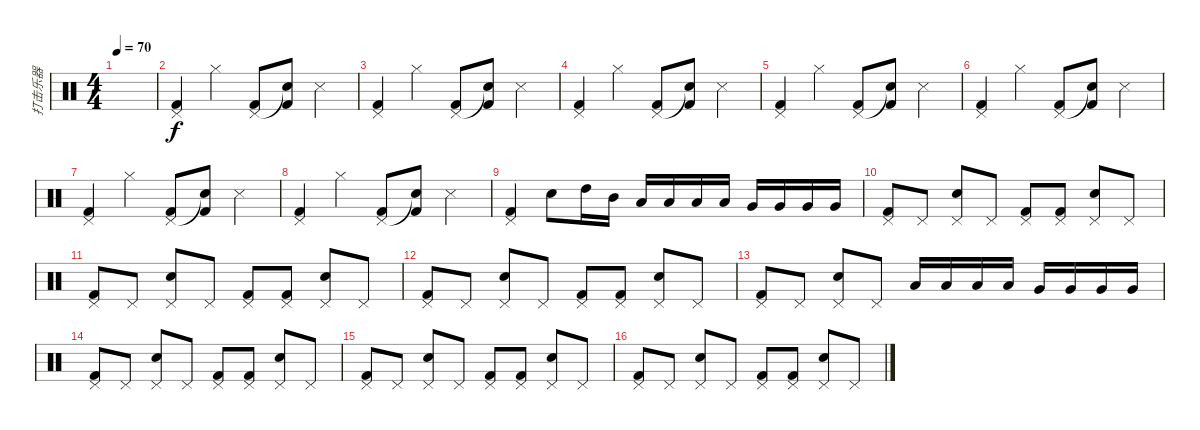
\track ("打击乐器" "打击乐器") {instrument percussion}
\staff {score}
\articulation defaults
\ts (4 4)
\tempo 70
\clef neutral
\ks c
|
("Pedal Hi-Hat (hit)" "Kick (hit) 2").4 "Hi-Hat (closed)".4 ("Pedal Hi-Hat (hit)" "Kick (hit) 2").8 ("Snare (hit)"{t} "Kick (hit) 2").8 "Snare (side stick) 3".4 |
("Pedal Hi-Hat (hit)" "Kick (hit) 2").4 "Hi-Hat (closed)".4 ("Pedal Hi-Hat (hit)" "Kick (hit) 2").8 ("Snare (hit)"{t} "Kick (hit) 2").8 "Snare (side stick) 3".4 |
("Pedal Hi-Hat (hit)" "Kick (hit) 2").4 "Hi-Hat (closed)".4 ("Pedal Hi-Hat (hit)" "Kick (hit) 2").8 ("Snare (hit)"{t} "Kick (hit) 2").8 "Snare (side stick) 3".4 |
("Pedal Hi-Hat (hit)" "Kick (hit) 2").4 "Hi-Hat (closed)".4 ("Pedal Hi-Hat (hit)" "Kick (hit) 2").8 ("Snare (hit)"{t} "Kick (hit) 2").8 "Snare (side stick) 3".4 |
("Pedal Hi-Hat (hit)" "Kick (hit) 2").4 "Hi-Hat (closed)".4 ("Pedal Hi-Hat (hit)" "Kick (hit) 2").8 ("Snare (hit)"{t} "Kick (hit) 2").8 "Snare (side stick) 3".4 |
("Pedal Hi-Hat (hit)" "Kick (hit) 2").4 "Hi-Hat (closed)".4 ("Pedal Hi-Hat (hit)" "Kick (hit) 2").8 ("Snare (hit)"{t} "Kick (hit) 2").8 "Snare (side stick) 3".4 |
("Pedal Hi-Hat (hit)" "Kick (hit) 2").4 "Hi-Hat (closed)".4 ("Pedal Hi-Hat (hit)" "Kick (hit) 2").8 ("Snare (hit)"{t} "Kick (hit) 2").8 "Snare (side stick) 3".4 |
("Pedal Hi-Hat (hit)" "Kick (hit) 2").4 "Electric Snare (hit)".8 "High Tom (hit)".16 "Mid Tom (hit)".16 "Low Tom (hit)".16 "Low Tom (hit)".16 "Low Tom (hit)".16 "Low Tom (hit)".16 "Very Low Tom (hit)".16 "Very Low Tom (hit)".16 "Very Low Tom (hit)".16 "Very Low Tom (hit)".16 |
("Pedal Hi-Hat (hit)" "Kick (hit) 2").8 "Pedal Hi-Hat (hit)".8 ("Pedal Hi-Hat (hit)" "Electric Snare (hit)").8 "Pedal Hi-Hat (hit)".8 ("Pedal Hi-Hat (hit)" "Kick (hit) 2").8 ("Pedal Hi-Hat (hit)" "Kick (hit) 2").8 ("Pedal Hi-Hat (hit)" "Electric Snare (hit)").8 "Pedal Hi-Hat (hit)".8 |
("Pedal Hi-Hat (hit)" "Kick (hit) 2").8 "Pedal Hi-Hat (hit)".8 ("Pedal Hi-Hat (hit)" "Electric Snare (hit)").8 "Pedal Hi-Hat (hit)".8 ("Pedal Hi-Hat (hit)" "Kick (hit) 2").8 ("Pedal Hi-Hat (hit)" "Kick (hit) 2").8 ("Pedal Hi-Hat (hit)" "Electric Snare (hit)").8 "Pedal Hi-Hat (hit)".8 |
("Pedal Hi-Hat (hit)" "Kick (hit) 2").8 "Pedal Hi-Hat (hit)".8 ("Pedal Hi-Hat (hit)" "Electric Snare (hit)").8 "Pedal Hi-Hat (hit)".8 ("Pedal Hi-Hat (hit)" "Kick (hit) 2").8 ("Pedal Hi-Hat (hit)" "Kick (hit) 2").8 ("Pedal Hi-Hat (hit)" "Electric Snare (hit)").8 "Pedal Hi-Hat (hit)".8 |
("Pedal Hi-Hat (hit)" "Kick (hit) 2").8 "Pedal Hi-Hat (hit)".8 ("Pedal Hi-Hat (hit)" "Electric Snare (hit)").8 "Pedal Hi-Hat (hit)".8 "Low Tom (hit)".16 "Low Tom (hit)".16 "Low Tom (hit)".16 "Low Tom (hit)".16 "Very Low Tom (hit)".16 "Very Low Tom (hit)".16 "Very Low Tom (hit)".16 "Very Low Tom (hit)".16 |
("Pedal Hi-Hat (hit)" "Kick (hit) 2").8 "Pedal Hi-Hat (hit)".8 ("Pedal Hi-Hat (hit)" "Electric Snare (hit)").8 "Pedal Hi-Hat (hit)".8 ("Pedal Hi-Hat (hit)" "Kick (hit) 2").8 ("Pedal Hi-Hat (hit)" "Kick (hit) 2").8 ("Pedal Hi-Hat (hit)" "Electric Snare (hit)").8 "Pedal Hi-Hat (hit)".8 |
("Pedal Hi-Hat (hit)" "Kick (hit) 2").8 "Pedal Hi-Hat (hit)".8 ("Pedal Hi-Hat (hit)" "Electric Snare (hit)").8 "Pedal Hi-Hat (hit)".8 ("Pedal Hi-Hat (hit)" "Kick (hit) 2").8 ("Pedal Hi-Hat (hit)" "Kick (hit) 2").8 ("Pedal Hi-Hat (hit)" "Electric Snare (hit)").8 "Pedal Hi-Hat (hit)".8 |
("Pedal Hi-Hat (hit)" "Kick (hit) 2").8 "Pedal Hi-Hat (hit)".8 ("Pedal Hi-Hat (hit)" "Electric Snare (hit)").8 "Pedal Hi-Hat (hit)".8 ("Pedal Hi-Hat (hit)" "Kick (hit) 2").8 ("Pedal Hi-Hat (hit)" "Kick (hit) 2").8 ("Pedal Hi-Hat (hit)" "Electric Snare (hit)").8 "Pedal Hi-Hat (hit)".8
